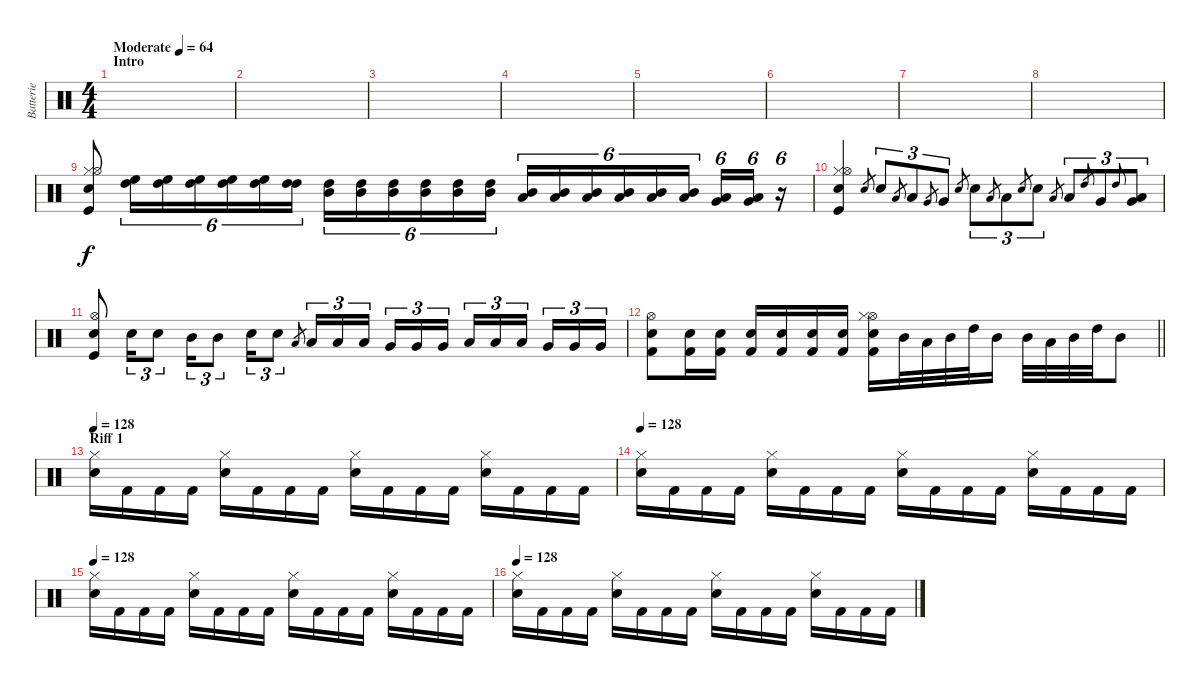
\track ("Batterie" "Batterie") {instrument percussion}
\staff {score}
\articulation defaults
\ts (4 4)
\section ("" "Intro")
\tempo (64 "Moderate")
\clef neutral
\ks c
|
|
|
|
|
|
|
|
("Snare (hit) 2" "Hi-Hat (closed)" "Hi-Hat (open)" "Kick (hit)").8 ("High Floor Tom (hit)" "High Tom (hit)").16{tu (6 4)} ("High Floor Tom (hit)" "High Tom (hit)").16{tu (6 4)} ("High Floor Tom (hit)" "High Tom (hit)").16{tu (6 4)} ("High Floor Tom (hit)" "High Tom (hit)").16{tu (6 4)} ("High Tom (hit)" "High Floor Tom (hit)").16{tu (6 4)} ("High Tom (hit)" "High Tom (hit)").16{tu (6 4) beam splitsecondary} ("High Tom (hit)" "Mid Tom (hit)").16{tu (6 4)} ("Mid Tom (hit)" "High Tom (hit)").16{tu (6 4)} ("High Tom (hit)" "Mid Tom (hit)").16{tu (6 4)} ("High Tom (hit)" "Mid Tom (hit)").16{tu (6 4)} ("High Tom (hit)" "Mid Tom (hit)").16{tu (6 4)} ("Mid Tom (hit)" "High Tom (hit)").16{tu (6 4) beam splitsecondary} ("Mid Tom (hit)" "Low Tom (hit)").16{tu (6 4)} ("Mid Tom (hit)" "Low Tom (hit)").16{tu (6 4)} ("Mid Tom (hit)" "Low Tom (hit)").16{tu (6 4)} ("Low Tom (hit)" "Mid Tom (hit)").16{tu (6 4)} ("Low Tom (hit)" "Mid Tom (hit)").16{tu (6 4)} ("Low Tom (hit)" "Mid Tom (hit)").16{tu (6 4) beam splitsecondary} ("Low Tom (hit)" "Very Low Tom (hit)").16{tu (6 4)} ("Low Tom (hit)" "Very Low Tom (hit)").16{tu (6 4)} r.16{tu (6 4)} |
("Snare (hit) 2" "Kick (hit)" "Hi-Hat (closed)" "Hi-Hat (open)").4 "Snare (hit) 2".8{gr} "Snare (hit) 2".8{tu (3 2)} "Low Tom (hit)".8{gr} "Low Tom (hit)".8{tu (3 2)} "Very Low Tom (hit)".8{gr} "Very Low Tom (hit)".8{tu (3 2)} "Snare (hit) 2".8{gr} "Snare (hit) 2".8{tu (3 2)} "Low Tom (hit)".8{gr} "Low Tom (hit)".8{tu (3 2)} "Snare (hit) 2".8{gr} "Snare (hit) 2".8{tu (3 2)} "Low Tom (hit)".8{gr} "Low Tom (hit)".8{tu (3 2)} "High Tom (hit)".8{gr} "Very Low Tom (hit)".8{tu (3 2)} "High Tom (hit)".8{gr onbeat} ("Very Low Tom (hit)" "Low Tom (hit)").8{tu (3 2)} |
("Snare (hit) 2" "Kick (hit)" "Hi-Hat (open)").8 "Electric Snare (hit)".16{tu (3 2)} "Electric Snare (hit)".8{tu (3 2)} "Mid Tom (hit)".16{tu (3 2)} "Mid Tom (hit)".8{tu (3 2)} "Electric Snare (hit)".16{tu (3 2)} "Electric Snare (hit)".8{tu (3 2)} "Low Tom (hit)".8{gr} "Low Tom (hit)".16{tu (3 2)} "Low Tom (hit)".16{tu (3 2)} "Low Tom (hit)".16{tu (3 2) beam splitsecondary} "Very Low Tom (hit)".16{tu (3 2)} "Very Low Tom (hit)".16{tu (3 2)} "Very Low Tom (hit)".16{tu (3 2)} "Low Floor Tom (hit)".16{tu (3 2)} "Low Floor Tom (hit)".16{tu (3 2)} "Low Floor Tom (hit)".16{tu (3 2) beam splitsecondary} "Very Low Tom (hit)".16{tu (3 2)} "Very Low Tom (hit)".16{tu (3 2)} "Very Low Tom (hit)".16{tu (3 2)} |
\barLineRight lightlight
("Kick (hit) 2" "Electric Snare (hit)" "Hi-Hat (open)").8 ("Electric Snare (hit)" "Kick (hit) 2").16 ("Kick (hit) 2" "Electric Snare (hit)").16 ("Electric Snare (hit)" "Kick (hit) 2").16 ("Electric Snare (hit)" "Kick (hit) 2").16 ("Kick (hit) 2" "Electric Snare (hit)").16 ("Electric Snare (hit)" "Kick (hit) 2").16 ("Electric Snare (hit)" "Kick (hit) 2" "Hi-Hat (open)" "Hi-Hat (closed)").16 "Mid Tom (hit)".32 "Low Tom (hit)".32 "Mid Tom (hit)".32 "High Tom (hit)".32 "Mid Tom (hit)".16 "Mid Tom (hit)".32 "Low Tom (hit)".32 "Mid Tom (hit)".32 "High Tom (hit)".32 "Mid Tom (hit)".8 |
\section ("" "Riff 1")
\tempo 128
("Electric Snare (hit)" "Hi-Hat (closed)").16 "Kick (hit) 2".16 "Kick (hit) 2".16 "Kick (hit) 2".16 ("Hi-Hat (closed)" "Electric Snare (hit)").16 "Kick (hit) 2".16 "Kick (hit) 2".16 "Kick (hit) 2".16 ("Electric Snare (hit)" "Hi-Hat (closed)").16 "Kick (hit) 2".16 "Kick (hit) 2".16 "Kick (hit) 2".16 ("Electric Snare (hit)" "Hi-Hat (closed)").16 "Kick (hit) 2".16 "Kick (hit) 2".16 "Kick (hit) 2".16 |
\tempo 128
("Electric Snare (hit)" "Hi-Hat (closed)").16 "Kick (hit) 2".16 "Kick (hit) 2".16 "Kick (hit) 2".16 ("Hi-Hat (closed)" "Electric Snare (hit)").16 "Kick (hit) 2".16 "Kick (hit) 2".16 "Kick (hit) 2".16 ("Electric Snare (hit)" "Hi-Hat (closed)").16 "Kick (hit) 2".16 "Kick (hit) 2".16 "Kick (hit) 2".16 ("Electric Snare (hit)" "Hi-Hat (closed)").16 "Kick (hit) 2".16 "Kick (hit) 2".16 "Kick (hit) 2".16 |
\tempo 128
("Electric Snare (hit)" "Hi-Hat (closed)").16 "Kick (hit) 2".16 "Kick (hit) 2".16 "Kick (hit) 2".16 ("Hi-Hat (closed)" "Electric Snare (hit)").16 "Kick (hit) 2".16 "Kick (hit) 2".16 "Kick (hit) 2".16 ("Electric Snare (hit)" "Hi-Hat (closed)").16 "Kick (hit) 2".16 "Kick (hit) 2".16 "Kick (hit) 2".16 ("Electric Snare (hit)" "Hi-Hat (closed)").16 "Kick (hit) 2".16 "Kick (hit) 2".16 "Kick (hit) 2".16 |
\tempo 128
("Electric Snare (hit)" "Hi-Hat (closed)").16 "Kick (hit) 2".16 "Kick (hit) 2".16 "Kick (hit) 2".16 ("Hi-Hat (closed)" "Electric Snare (hit)").16 "Kick (hit) 2".16 "Kick (hit) 2".16 "Kick (hit) 2".16 ("Electric Snare (hit)" "Hi-Hat (closed)").16 "Kick (hit) 2".16 "Kick (hit) 2".16 "Kick (hit) 2".16 ("Electric Snare (hit)" "Hi-Hat (closed)").16 "Kick (hit) 2".16 "Kick (hit) 2".16 "Kick (hit) 2".16
